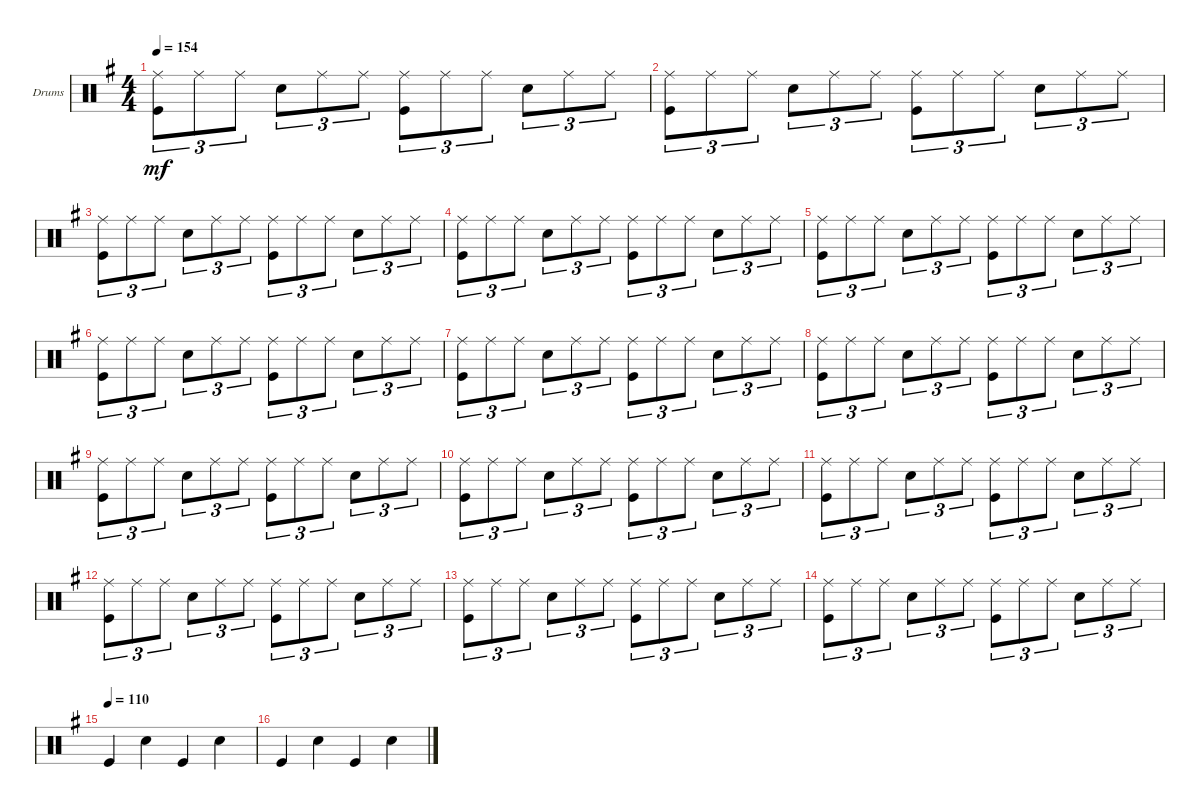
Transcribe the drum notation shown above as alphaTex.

\defaultSystemsLayout 4
\bracketExtendMode groupsimilarinstruments
\firstSystemTrackNameOrientation horizontal
\otherSystemsTrackNameOrientation horizontal
\track ("Drumkit" "Drums") {instrument percussion}
\staff {score}
\articulation defaults
\ts (4 4)
\tempo 154
\clef neutral
\ks g
("Kick (hit)" "Ride (middle)").8{tu (3 2) dy mf} "Ride (middle)".8{tu (3 2)} "Ride (middle)".8{tu (3 2)} "Snare (hit) 2".8{tu (3 2)} "Ride (middle)".8{tu (3 2)} "Ride (middle)".8{tu (3 2)} ("Ride (middle)" "Kick (hit)").8{tu (3 2)} "Ride (middle)".8{tu (3 2)} "Ride (middle)".8{tu (3 2)} "Snare (hit) 2".8{tu (3 2)} "Ride (middle)".8{tu (3 2)} "Ride (middle)".8{tu (3 2)} |
("Kick (hit)" "Ride (middle)").8{tu (3 2)} "Ride (middle)".8{tu (3 2)} "Ride (middle)".8{tu (3 2)} "Snare (hit) 2".8{tu (3 2)} "Ride (middle)".8{tu (3 2)} "Ride (middle)".8{tu (3 2)} ("Ride (middle)" "Kick (hit)").8{tu (3 2)} "Ride (middle)".8{tu (3 2)} "Ride (middle)".8{tu (3 2)} "Snare (hit) 2".8{tu (3 2)} "Ride (middle)".8{tu (3 2)} "Ride (middle)".8{tu (3 2)} |
("Kick (hit)" "Ride (middle)").8{tu (3 2)} "Ride (middle)".8{tu (3 2)} "Ride (middle)".8{tu (3 2)} "Snare (hit) 2".8{tu (3 2)} "Ride (middle)".8{tu (3 2)} "Ride (middle)".8{tu (3 2)} ("Ride (middle)" "Kick (hit)").8{tu (3 2)} "Ride (middle)".8{tu (3 2)} "Ride (middle)".8{tu (3 2)} "Snare (hit) 2".8{tu (3 2)} "Ride (middle)".8{tu (3 2)} "Ride (middle)".8{tu (3 2)} |
("Kick (hit)" "Ride (middle)").8{tu (3 2)} "Ride (middle)".8{tu (3 2)} "Ride (middle)".8{tu (3 2)} "Snare (hit) 2".8{tu (3 2)} "Ride (middle)".8{tu (3 2)} "Ride (middle)".8{tu (3 2)} ("Ride (middle)" "Kick (hit)").8{tu (3 2)} "Ride (middle)".8{tu (3 2)} "Ride (middle)".8{tu (3 2)} "Snare (hit) 2".8{tu (3 2)} "Ride (middle)".8{tu (3 2)} "Ride (middle)".8{tu (3 2)} |
("Kick (hit)" "Ride (middle)").8{tu (3 2)} "Ride (middle)".8{tu (3 2)} "Ride (middle)".8{tu (3 2)} "Snare (hit) 2".8{tu (3 2)} "Ride (middle)".8{tu (3 2)} "Ride (middle)".8{tu (3 2)} ("Ride (middle)" "Kick (hit)").8{tu (3 2)} "Ride (middle)".8{tu (3 2)} "Ride (middle)".8{tu (3 2)} "Snare (hit) 2".8{tu (3 2)} "Ride (middle)".8{tu (3 2)} "Ride (middle)".8{tu (3 2)} |
("Kick (hit)" "Ride (middle)").8{tu (3 2)} "Ride (middle)".8{tu (3 2)} "Ride (middle)".8{tu (3 2)} "Snare (hit) 2".8{tu (3 2)} "Ride (middle)".8{tu (3 2)} "Ride (middle)".8{tu (3 2)} ("Ride (middle)" "Kick (hit)").8{tu (3 2)} "Ride (middle)".8{tu (3 2)} "Ride (middle)".8{tu (3 2)} "Snare (hit) 2".8{tu (3 2)} "Ride (middle)".8{tu (3 2)} "Ride (middle)".8{tu (3 2)} |
("Kick (hit)" "Ride (middle)").8{tu (3 2)} "Ride (middle)".8{tu (3 2)} "Ride (middle)".8{tu (3 2)} "Snare (hit) 2".8{tu (3 2)} "Ride (middle)".8{tu (3 2)} "Ride (middle)".8{tu (3 2)} ("Ride (middle)" "Kick (hit)").8{tu (3 2)} "Ride (middle)".8{tu (3 2)} "Ride (middle)".8{tu (3 2)} "Snare (hit) 2".8{tu (3 2)} "Ride (middle)".8{tu (3 2)} "Ride (middle)".8{tu (3 2)} |
("Kick (hit)" "Ride (middle)").8{tu (3 2)} "Ride (middle)".8{tu (3 2)} "Ride (middle)".8{tu (3 2)} "Snare (hit) 2".8{tu (3 2)} "Ride (middle)".8{tu (3 2)} "Ride (middle)".8{tu (3 2)} ("Ride (middle)" "Kick (hit)").8{tu (3 2)} "Ride (middle)".8{tu (3 2)} "Ride (middle)".8{tu (3 2)} "Snare (hit) 2".8{tu (3 2)} "Ride (middle)".8{tu (3 2)} "Ride (middle)".8{tu (3 2)} |
("Kick (hit)" "Ride (middle)").8{tu (3 2)} "Ride (middle)".8{tu (3 2)} "Ride (middle)".8{tu (3 2)} "Snare (hit) 2".8{tu (3 2)} "Ride (middle)".8{tu (3 2)} "Ride (middle)".8{tu (3 2)} ("Ride (middle)" "Kick (hit)").8{tu (3 2)} "Ride (middle)".8{tu (3 2)} "Ride (middle)".8{tu (3 2)} "Snare (hit) 2".8{tu (3 2)} "Ride (middle)".8{tu (3 2)} "Ride (middle)".8{tu (3 2)} |
("Kick (hit)" "Ride (middle)").8{tu (3 2)} "Ride (middle)".8{tu (3 2)} "Ride (middle)".8{tu (3 2)} "Snare (hit) 2".8{tu (3 2)} "Ride (middle)".8{tu (3 2)} "Ride (middle)".8{tu (3 2)} ("Ride (middle)" "Kick (hit)").8{tu (3 2)} "Ride (middle)".8{tu (3 2)} "Ride (middle)".8{tu (3 2)} "Snare (hit) 2".8{tu (3 2)} "Ride (middle)".8{tu (3 2)} "Ride (middle)".8{tu (3 2)} |
("Kick (hit)" "Ride (middle)").8{tu (3 2)} "Ride (middle)".8{tu (3 2)} "Ride (middle)".8{tu (3 2)} "Snare (hit) 2".8{tu (3 2)} "Ride (middle)".8{tu (3 2)} "Ride (middle)".8{tu (3 2)} ("Ride (middle)" "Kick (hit)").8{tu (3 2)} "Ride (middle)".8{tu (3 2)} "Ride (middle)".8{tu (3 2)} "Snare (hit) 2".8{tu (3 2)} "Ride (middle)".8{tu (3 2)} "Ride (middle)".8{tu (3 2)} |
("Kick (hit)" "Ride (middle)").8{tu (3 2)} "Ride (middle)".8{tu (3 2)} "Ride (middle)".8{tu (3 2)} "Snare (hit) 2".8{tu (3 2)} "Ride (middle)".8{tu (3 2)} "Ride (middle)".8{tu (3 2)} ("Ride (middle)" "Kick (hit)").8{tu (3 2)} "Ride (middle)".8{tu (3 2)} "Ride (middle)".8{tu (3 2)} "Snare (hit) 2".8{tu (3 2)} "Ride (middle)".8{tu (3 2)} "Ride (middle)".8{tu (3 2)} |
("Kick (hit)" "Ride (middle)").8{tu (3 2)} "Ride (middle)".8{tu (3 2)} "Ride (middle)".8{tu (3 2)} "Snare (hit) 2".8{tu (3 2)} "Ride (middle)".8{tu (3 2)} "Ride (middle)".8{tu (3 2)} ("Ride (middle)" "Kick (hit)").8{tu (3 2)} "Ride (middle)".8{tu (3 2)} "Ride (middle)".8{tu (3 2)} "Snare (hit) 2".8{tu (3 2)} "Ride (middle)".8{tu (3 2)} "Ride (middle)".8{tu (3 2)} |
("Kick (hit)" "Ride (middle)").8{tu (3 2)} "Ride (middle)".8{tu (3 2)} "Ride (middle)".8{tu (3 2)} "Snare (hit) 2".8{tu (3 2)} "Ride (middle)".8{tu (3 2)} "Ride (middle)".8{tu (3 2)} ("Ride (middle)" "Kick (hit)").8{tu (3 2)} "Ride (middle)".8{tu (3 2)} "Ride (middle)".8{tu (3 2)} "Snare (hit) 2".8{tu (3 2)} "Ride (middle)".8{tu (3 2)} "Ride (middle)".8{tu (3 2)} |
\tempo (110)
"Kick (hit)".4 "Snare (hit) 2".4 "Kick (hit)".4 "Snare (hit) 2".4 |
"Kick (hit)".4 "Snare (hit) 2".4 "Kick (hit)".4 "Snare (hit) 2".4
